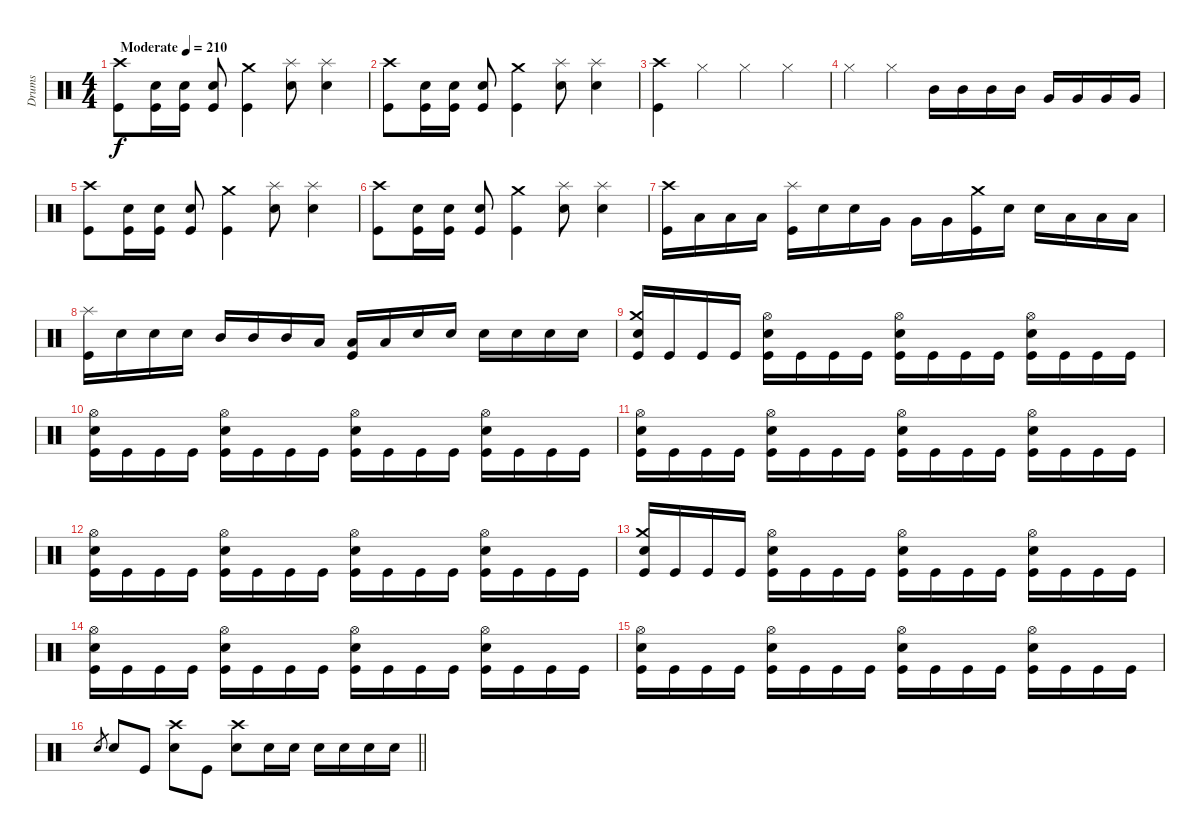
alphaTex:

\track ("Drums" "Drums") {instrument percussion}
\staff {score}
\articulation defaults
\ts (4 4)
\tempo (210 "Moderate")
\clef neutral
\ks c
("Crash high (hit)" "Kick (hit)").8{dy f} ("Snare (hit) 2" "Kick (hit)").16 ("Snare (hit) 2" "Kick (hit)").16 ("Snare (hit) 2" "Kick (hit)").8 ("Crash medium (hit)" "Kick (hit)").4 ("Splash (hit)" "Electric Snare (hit)").8 ("Splash (hit)" "Electric Snare (hit)").4 |
("Crash high (hit)" "Kick (hit)").8 ("Snare (hit) 2" "Kick (hit)").16 ("Snare (hit) 2" "Kick (hit)").16 ("Snare (hit) 2" "Kick (hit)").8 ("Crash medium (hit)" "Kick (hit)").4 ("Splash (hit)" "Electric Snare (hit)").8 ("Splash (hit)" "Electric Snare (hit)").4 |
("Crash high (hit)" "Kick (hit)").4 "Hi-Hat (closed)".4 "Hi-Hat (closed)".4 "Hi-Hat (closed)".4 |
"Hi-Hat (closed)".4 "Hi-Hat (closed)".4 "Mid Tom (hit)".16 "Mid Tom (hit)".16 "Mid Tom (hit)".16 "Mid Tom (hit)".16 "Very Low Tom (hit)".16 "Very Low Tom (hit)".16 "Very Low Tom (hit)".16 "Very Low Tom (hit)".16 |
("Crash high (hit)" "Kick (hit)").8 ("Snare (hit) 2" "Kick (hit)").16 ("Snare (hit) 2" "Kick (hit)").16 ("Snare (hit) 2" "Kick (hit)").8 ("Crash medium (hit)" "Kick (hit)").4 ("Splash (hit)" "Electric Snare (hit)").8 ("Splash (hit)" "Electric Snare (hit)").4 |
("Crash high (hit)" "Kick (hit)").8 ("Snare (hit) 2" "Kick (hit)").16 ("Snare (hit) 2" "Kick (hit)").16 ("Snare (hit) 2" "Kick (hit)").8 ("Crash medium (hit)" "Kick (hit)").4 ("Splash (hit)" "Electric Snare (hit)").8 ("Splash (hit)" "Electric Snare (hit)").4 |
("Crash high (hit)" "Kick (hit)").16 "Low Tom (hit)".16 "Low Tom (hit)".16 "Low Tom (hit)".16 ("Splash (hit)" "Kick (hit)").16 "Snare (hit) 2".16 "Snare (hit) 2".16 "Very Low Tom (hit)".16 "Very Low Tom (hit)".16 "Very Low Tom (hit)".16 ("Crash medium (hit)" "Kick (hit)").16 "Snare (hit) 2".16 "Snare (hit) 2".16 "Low Tom (hit)".16 "Low Tom (hit)".16 "Low Tom (hit)".16 |
("Splash (hit)" "Kick (hit)").16 "Snare (hit) 2".16 "Snare (hit) 2".16 "Snare (hit) 2".16 "Mid Tom (hit)".16 "Mid Tom (hit)".16 "Mid Tom (hit)".16 "Low Tom (hit)".16 ("Low Tom (hit)" "Kick (hit)").16 "Low Tom (hit)".16 "Snare (hit) 2".16 "Snare (hit) 2".16 "Snare (hit) 2".16 "Snare (hit) 2".16 "Snare (hit) 2".16 "Snare (hit) 2".16 |
("Crash medium (hit)" "Electric Snare (hit)" "Kick (hit)").16 "Kick (hit)".16 "Kick (hit)".16 "Kick (hit)".16 ("Hi-Hat (open)" "Electric Snare (hit)" "Kick (hit)").16 "Kick (hit)".16 "Kick (hit)".16 "Kick (hit)".16 ("Hi-Hat (open)" "Electric Snare (hit)" "Kick (hit)").16 "Kick (hit)".16 "Kick (hit)".16 "Kick (hit)".16 ("Hi-Hat (open)" "Electric Snare (hit)" "Kick (hit)").16 "Kick (hit)".16 "Kick (hit)".16 "Kick (hit)".16 |
("Hi-Hat (open)" "Electric Snare (hit)" "Kick (hit)").16 "Kick (hit)".16 "Kick (hit)".16 "Kick (hit)".16 ("Hi-Hat (open)" "Electric Snare (hit)" "Kick (hit)").16 "Kick (hit)".16 "Kick (hit)".16 "Kick (hit)".16 ("Hi-Hat (open)" "Electric Snare (hit)" "Kick (hit)").16 "Kick (hit)".16 "Kick (hit)".16 "Kick (hit)".16 ("Hi-Hat (open)" "Electric Snare (hit)" "Kick (hit)").16 "Kick (hit)".16 "Kick (hit)".16 "Kick (hit)".16 |
("Hi-Hat (open)" "Electric Snare (hit)" "Kick (hit)").16 "Kick (hit)".16 "Kick (hit)".16 "Kick (hit)".16 ("Hi-Hat (open)" "Electric Snare (hit)" "Kick (hit)").16 "Kick (hit)".16 "Kick (hit)".16 "Kick (hit)".16 ("Hi-Hat (open)" "Electric Snare (hit)" "Kick (hit)").16 "Kick (hit)".16 "Kick (hit)".16 "Kick (hit)".16 ("Hi-Hat (open)" "Electric Snare (hit)" "Kick (hit)").16 "Kick (hit)".16 "Kick (hit)".16 "Kick (hit)".16 |
("Hi-Hat (open)" "Electric Snare (hit)" "Kick (hit)").16 "Kick (hit)".16 "Kick (hit)".16 "Kick (hit)".16 ("Hi-Hat (open)" "Electric Snare (hit)" "Kick (hit)").16 "Kick (hit)".16 "Kick (hit)".16 "Kick (hit)".16 ("Hi-Hat (open)" "Electric Snare (hit)" "Kick (hit)").16 "Kick (hit)".16 "Kick (hit)".16 "Kick (hit)".16 ("Hi-Hat (open)" "Electric Snare (hit)" "Kick (hit)").16 "Kick (hit)".16 "Kick (hit)".16 "Kick (hit)".16 |
("Crash medium (hit)" "Electric Snare (hit)" "Kick (hit)").16 "Kick (hit)".16 "Kick (hit)".16 "Kick (hit)".16 ("Hi-Hat (open)" "Electric Snare (hit)" "Kick (hit)").16 "Kick (hit)".16 "Kick (hit)".16 "Kick (hit)".16 ("Hi-Hat (open)" "Electric Snare (hit)" "Kick (hit)").16 "Kick (hit)".16 "Kick (hit)".16 "Kick (hit)".16 ("Hi-Hat (open)" "Electric Snare (hit)" "Kick (hit)").16 "Kick (hit)".16 "Kick (hit)".16 "Kick (hit)".16 |
("Hi-Hat (open)" "Electric Snare (hit)" "Kick (hit)").16 "Kick (hit)".16 "Kick (hit)".16 "Kick (hit)".16 ("Hi-Hat (open)" "Electric Snare (hit)" "Kick (hit)").16 "Kick (hit)".16 "Kick (hit)".16 "Kick (hit)".16 ("Hi-Hat (open)" "Electric Snare (hit)" "Kick (hit)").16 "Kick (hit)".16 "Kick (hit)".16 "Kick (hit)".16 ("Hi-Hat (open)" "Electric Snare (hit)" "Kick (hit)").16 "Kick (hit)".16 "Kick (hit)".16 "Kick (hit)".16 |
("Hi-Hat (open)" "Electric Snare (hit)" "Kick (hit)").16 "Kick (hit)".16 "Kick (hit)".16 "Kick (hit)".16 ("Hi-Hat (open)" "Electric Snare (hit)" "Kick (hit)").16 "Kick (hit)".16 "Kick (hit)".16 "Kick (hit)".16 ("Hi-Hat (open)" "Electric Snare (hit)" "Kick (hit)").16 "Kick (hit)".16 "Kick (hit)".16 "Kick (hit)".16 ("Hi-Hat (open)" "Electric Snare (hit)" "Kick (hit)").16 "Kick (hit)".16 "Kick (hit)".16 "Kick (hit)".16 |
\barLineRight lightlight "Electric Snare (hit)".8{gr} "Electric Snare (hit)".8 "Kick (hit)".8
("Crash high (hit)" "Electric Snare (hit)").8 "Kick (hit)".8 ("Crash high (hit)" "Electric Snare (hit)").8 "Electric Snare (hit)".16 "Electric Snare (hit)".16 "Electric Snare (hit)".16 "Electric Snare (hit)".16 "Electric Snare (hit)".16 "Electric Snare (hit)".16
